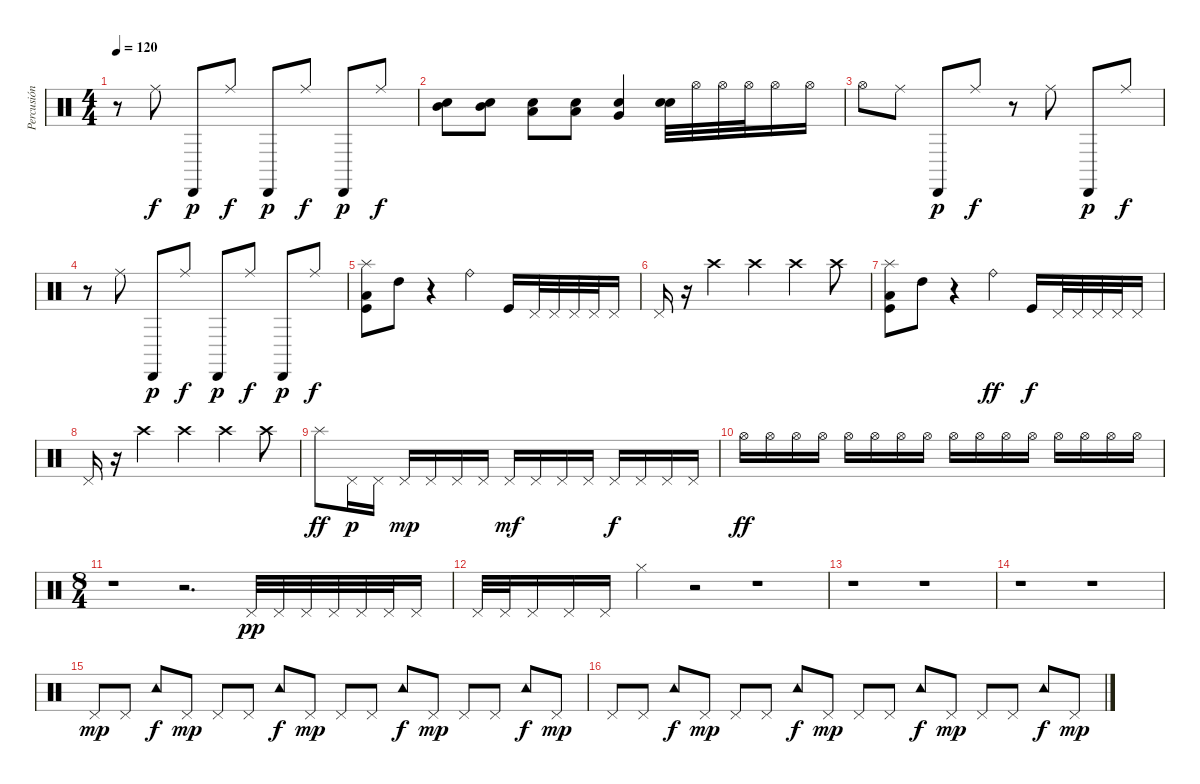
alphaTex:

\track ("Percusión" "Percusión") {instrument percussion}
\staff {score}
\articulation defaults
\ts (4 4)
\tempo 120
\clef neutral
\ks c
r.8{dy f} "Ride (middle)".8 "Cabasa (hit)".8{dy p} "Ride (middle)".8{dy f} "Cabasa (hit)".8{dy p} "Ride (middle)".8{dy f} "Cabasa (hit)".8{dy p} "Ride (middle)".8{dy f} |
("Electric Snare (hit)" "Mid Tom (hit)").8 ("Electric Snare (hit)" "Mid Tom (hit)").8 ("Electric Snare (hit)" "Low Tom (hit)").8{beam merge} ("Electric Snare (hit)" "Low Tom (hit)").8 ("Electric Snare (hit)" "Very Low Tom (hit)").4 ("Electric Snare (hit)" "Electric Snare (hit)").32 "Hi-Hat (open)".32 "Hi-Hat (open)".32 "Hi-Hat (open)".32 "Hi-Hat (open)".16 "Hi-Hat (open)".16 |
"Hi-Hat (open)".8 "Ride (middle)".8 "Cabasa (hit)".8{dy p} "Ride (middle)".8{dy f} r.8 "Ride (middle)".8 "Cabasa (hit)".8{dy p} "Ride (middle)".8{dy f} |
r.8 "Ride (middle)".8 "Cabasa (hit)".8{dy p} "Ride (middle)".8{dy f} "Cabasa (hit)".8{dy p} "Ride (middle)".8{dy f} "Cabasa (hit)".8{dy p} "Ride (middle)".8{dy f} |
("Kick (hit)" "Low Tom (hit)" "Splash (hit)").8 "High Tom (hit)".8 r.4 "Ride (bell)".4 "Kick (hit)".16 "Pedal Hi-Hat (hit)".32 "Pedal Hi-Hat (hit)".32 "Pedal Hi-Hat (hit)".32 "Pedal Hi-Hat (hit)".32 "Pedal Hi-Hat (hit)".16 |
"Pedal Hi-Hat (hit)".16 r.16 "Crash high (hit)".4 "Crash high (hit)".4 "Crash high (hit)".4 "Crash high (hit)".8 |
("Kick (hit)" "Low Tom (hit)" "Splash (hit)").8 "High Tom (hit)".8 r.4 "Ride (bell)".4{dy ff} "Kick (hit)".16{dy f} "Pedal Hi-Hat (hit)".32 "Pedal Hi-Hat (hit)".32 "Pedal Hi-Hat (hit)".32 "Pedal Hi-Hat (hit)".32 "Pedal Hi-Hat (hit)".16 |
"Pedal Hi-Hat (hit)".16 r.16 "Crash high (hit)".4 "Crash high (hit)".4 "Crash high (hit)".4 "Crash high (hit)".8 |
"Splash (hit)".8{dy ff} "Pedal Hi-Hat (hit)".16{dy p} "Pedal Hi-Hat (hit)".16 "Pedal Hi-Hat (hit)".16{dy mp} "Pedal Hi-Hat (hit)".16 "Pedal Hi-Hat (hit)".16 "Pedal Hi-Hat (hit)".16 "Pedal Hi-Hat (hit)".16{dy mf} "Pedal Hi-Hat (hit)".16 "Pedal Hi-Hat (hit)".16 "Pedal Hi-Hat (hit)".16 "Pedal Hi-Hat (hit)".16{dy f} "Pedal Hi-Hat (hit)".16 "Pedal Hi-Hat (hit)".16 "Pedal Hi-Hat (hit)".16 |
"Hi-Hat (open)".16{dy ff} "Hi-Hat (open)".16 "Hi-Hat (open)".16 "Hi-Hat (open)".16 "Hi-Hat (open)".16 "Hi-Hat (open)".16 "Hi-Hat (open)".16 "Hi-Hat (open)".16 "Hi-Hat (open)".16 "Hi-Hat (open)".16 "Hi-Hat (open)".16 "Hi-Hat (open)".16 "Hi-Hat (open)".16 "Hi-Hat (open)".16 "Hi-Hat (open)".16 "Hi-Hat (open)".16 |
\ts (8 4)
r.1 r.2{d} "Pedal Hi-Hat (hit)".32{dy pp} "Pedal Hi-Hat (hit)".32 "Pedal Hi-Hat (hit)".32 "Pedal Hi-Hat (hit)".32 "Pedal Hi-Hat (hit)".32 "Pedal Hi-Hat (hit)".32 "Pedal Hi-Hat (hit)".16 |
"Pedal Hi-Hat (hit)".32 "Pedal Hi-Hat (hit)".32 "Pedal Hi-Hat (hit)".16 "Pedal Hi-Hat (hit)".16 "Pedal Hi-Hat (hit)".16 "Hi-Hat (closed)".4 r.2 r.1 |
r.1 r.1 |
r.1 r.1 |
"Pedal Hi-Hat (hit)".8{dy mp} "Pedal Hi-Hat (hit)".8 "Tambourine (hit)".8{dy f} "Pedal Hi-Hat (hit)".8{dy mp} "Pedal Hi-Hat (hit)".8 "Pedal Hi-Hat (hit)".8 "Tambourine (hit)".8{dy f} "Pedal Hi-Hat (hit)".8{dy mp} "Pedal Hi-Hat (hit)".8 "Pedal Hi-Hat (hit)".8 "Tambourine (hit)".8{dy f} "Pedal Hi-Hat (hit)".8{dy mp} "Pedal Hi-Hat (hit)".8 "Pedal Hi-Hat (hit)".8 "Tambourine (hit)".8{dy f} "Pedal Hi-Hat (hit)".8{dy mp} |
"Pedal Hi-Hat (hit)".8 "Pedal Hi-Hat (hit)".8 "Tambourine (hit)".8{dy f} "Pedal Hi-Hat (hit)".8{dy mp} "Pedal Hi-Hat (hit)".8 "Pedal Hi-Hat (hit)".8 "Tambourine (hit)".8{dy f} "Pedal Hi-Hat (hit)".8{dy mp} "Pedal Hi-Hat (hit)".8 "Pedal Hi-Hat (hit)".8 "Tambourine (hit)".8{dy f} "Pedal Hi-Hat (hit)".8{dy mp} "Pedal Hi-Hat (hit)".8 "Pedal Hi-Hat (hit)".8 "Tambourine (hit)".8{dy f} "Pedal Hi-Hat (hit)".8{dy mp}
